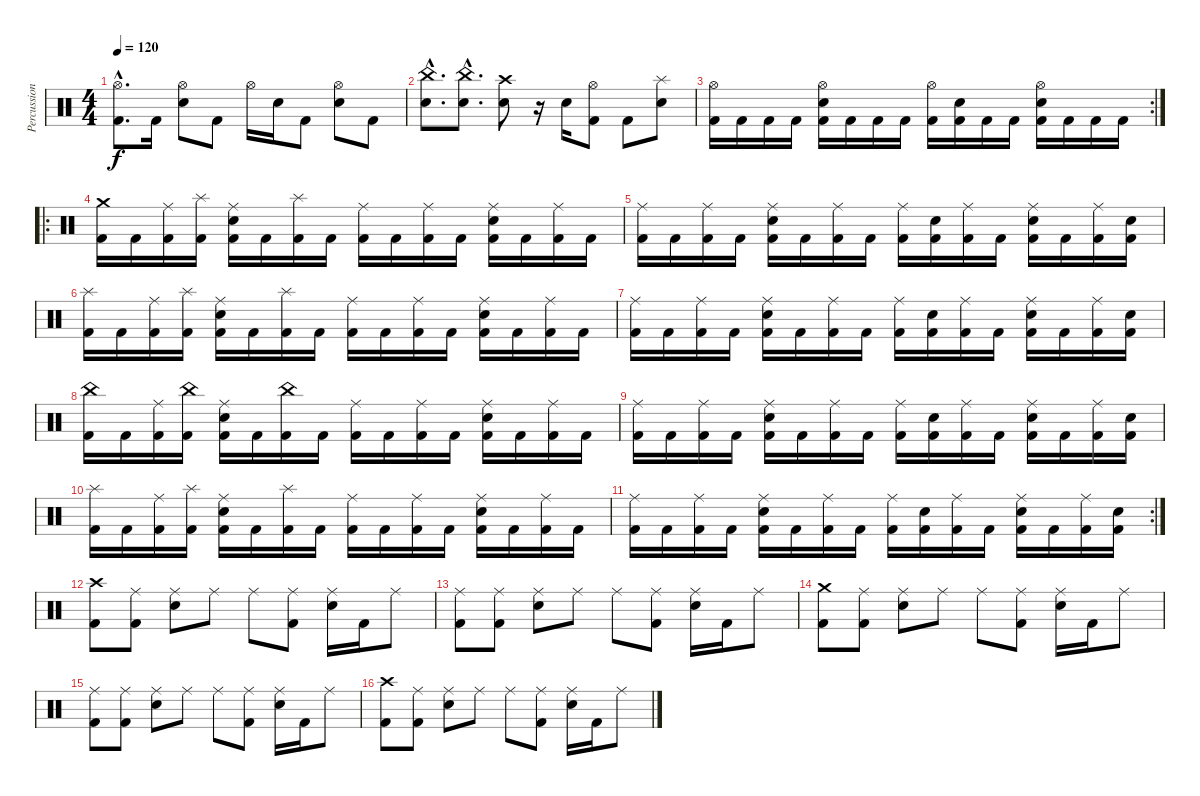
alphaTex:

\track ("Percussions" "Percussion") {instrument percussion}
\staff {score}
\articulation defaults
\ts (4 4)
\tempo 120
\clef neutral
\ks c
("Hi-Hat (open)"{hac} "Kick (hit) 2"{hac}).8{d dy f} "Kick (hit) 2".16 ("Hi-Hat (open)" "Electric Snare (hit)").8 "Kick (hit) 2".8 "Hi-Hat (open)".16 "Electric Snare (hit)".16 "Kick (hit) 2".8 ("Hi-Hat (open)" "Electric Snare (hit)").8 "Kick (hit) 2".8 |
("China (hit)"{hac} "Electric Snare (hit)"{hac}).8{d} ("China (hit)"{hac} "Electric Snare (hit)"{hac}).8{d} ("Crash high (hit)" "Electric Snare (hit)").8 r.16 "Electric Snare (hit)".16 ("Hi-Hat (open)" "Kick (hit) 2").8 "Kick (hit) 2".8 ("Splash (hit)" "Electric Snare (hit)").8 |
\rc 2
("Hi-Hat (open)" "Kick (hit) 2").16 "Kick (hit) 2".16 "Kick (hit) 2".16 "Kick (hit) 2".16 ("Hi-Hat (open)" "Electric Snare (hit)" "Kick (hit) 2").16 "Kick (hit) 2".16 "Kick (hit) 2".16 "Kick (hit) 2".16 ("Hi-Hat (open)" "Kick (hit) 2").16 ("Electric Snare (hit)" "Kick (hit) 2").16 "Kick (hit) 2".16 "Kick (hit) 2".16 ("Hi-Hat (open)" "Electric Snare (hit)" "Kick (hit) 2").16 "Kick (hit) 2".16 "Kick (hit) 2".16 "Kick (hit) 2".16 |
\ro
("Crash medium (hit)" "Kick (hit) 2").16 "Kick (hit) 2".16 ("Ride (middle)" "Kick (hit) 2").16 ("Splash (hit)" "Kick (hit) 2").16 ("Ride (middle)" "Electric Snare (hit)" "Kick (hit) 2").16 "Kick (hit) 2".16 ("Splash (hit)" "Kick (hit) 2").16 "Kick (hit) 2".16 ("Ride (middle)" "Kick (hit) 2").16 "Kick (hit) 2".16 ("Ride (middle)" "Kick (hit) 2").16 "Kick (hit) 2".16 ("Ride (middle)" "Electric Snare (hit)" "Kick (hit) 2").16 "Kick (hit) 2".16 ("Ride (middle)" "Kick (hit) 2").16 "Kick (hit) 2".16 |
("Ride (middle)" "Kick (hit) 2").16 "Kick (hit) 2".16 ("Ride (middle)" "Kick (hit) 2").16 "Kick (hit) 2".16 ("Ride (middle)" "Electric Snare (hit)" "Kick (hit) 2").16 "Kick (hit) 2".16 ("Ride (middle)" "Kick (hit) 2").16 "Kick (hit) 2".16 ("Ride (middle)" "Kick (hit) 2").16 ("Electric Snare (hit)" "Kick (hit) 2").16 ("Ride (middle)" "Kick (hit) 2").16 "Kick (hit) 2".16 ("Ride (middle)" "Electric Snare (hit)" "Kick (hit) 2").16 "Kick (hit) 2".16 ("Ride (middle)" "Kick (hit) 2").16 ("Electric Snare (hit)" "Kick (hit) 2").16 |
("Splash (hit)" "Kick (hit) 2").16 "Kick (hit) 2".16 ("Ride (middle)" "Kick (hit) 2").16 ("Splash (hit)" "Kick (hit) 2").16 ("Ride (middle)" "Electric Snare (hit)" "Kick (hit) 2").16 "Kick (hit) 2".16 ("Splash (hit)" "Kick (hit) 2").16 "Kick (hit) 2".16 ("Ride (middle)" "Kick (hit) 2").16 "Kick (hit) 2".16 ("Ride (middle)" "Kick (hit) 2").16 "Kick (hit) 2".16 ("Ride (middle)" "Electric Snare (hit)" "Kick (hit) 2").16 "Kick (hit) 2".16 ("Ride (middle)" "Kick (hit) 2").16 "Kick (hit) 2".16 |
("Ride (middle)" "Kick (hit) 2").16 "Kick (hit) 2".16 ("Ride (middle)" "Kick (hit) 2").16 "Kick (hit) 2".16 ("Ride (middle)" "Electric Snare (hit)" "Kick (hit) 2").16 "Kick (hit) 2".16 ("Ride (middle)" "Kick (hit) 2").16 "Kick (hit) 2".16 ("Ride (middle)" "Kick (hit) 2").16 ("Electric Snare (hit)" "Kick (hit) 2").16 ("Ride (middle)" "Kick (hit) 2").16 "Kick (hit) 2".16 ("Ride (middle)" "Electric Snare (hit)" "Kick (hit) 2").16 "Kick (hit) 2".16 ("Ride (middle)" "Kick (hit) 2").16 ("Electric Snare (hit)" "Kick (hit) 2").16 |
("China (hit)" "Kick (hit) 2").16 "Kick (hit) 2".16 ("Ride (middle)" "Kick (hit) 2").16 ("China (hit)" "Kick (hit) 2").16 ("Ride (middle)" "Electric Snare (hit)" "Kick (hit) 2").16 "Kick (hit) 2".16 ("China (hit)" "Kick (hit) 2").16 "Kick (hit) 2".16 ("Ride (middle)" "Kick (hit) 2").16 "Kick (hit) 2".16 ("Ride (middle)" "Kick (hit) 2").16 "Kick (hit) 2".16 ("Ride (middle)" "Electric Snare (hit)" "Kick (hit) 2").16 "Kick (hit) 2".16 ("Ride (middle)" "Kick (hit) 2").16 "Kick (hit) 2".16 |
("Ride (middle)" "Kick (hit) 2").16 "Kick (hit) 2".16 ("Ride (middle)" "Kick (hit) 2").16 "Kick (hit) 2".16 ("Ride (middle)" "Electric Snare (hit)" "Kick (hit) 2").16 "Kick (hit) 2".16 ("Ride (middle)" "Kick (hit) 2").16 "Kick (hit) 2".16 ("Ride (middle)" "Kick (hit) 2").16 ("Electric Snare (hit)" "Kick (hit) 2").16 ("Ride (middle)" "Kick (hit) 2").16 "Kick (hit) 2".16 ("Ride (middle)" "Electric Snare (hit)" "Kick (hit) 2").16 "Kick (hit) 2".16 ("Ride (middle)" "Kick (hit) 2").16 ("Electric Snare (hit)" "Kick (hit) 2").16 |
("Splash (hit)" "Kick (hit) 2").16 "Kick (hit) 2".16 ("Ride (middle)" "Kick (hit) 2").16 ("Splash (hit)" "Kick (hit) 2").16 ("Ride (middle)" "Electric Snare (hit)" "Kick (hit) 2").16 "Kick (hit) 2".16 ("Splash (hit)" "Kick (hit) 2").16 "Kick (hit) 2".16 ("Ride (middle)" "Kick (hit) 2").16 "Kick (hit) 2".16 ("Ride (middle)" "Kick (hit) 2").16 "Kick (hit) 2".16 ("Ride (middle)" "Electric Snare (hit)" "Kick (hit) 2").16 "Kick (hit) 2".16 ("Ride (middle)" "Kick (hit) 2").16 "Kick (hit) 2".16 |
\rc 2
("Ride (middle)" "Kick (hit) 2").16 "Kick (hit) 2".16 ("Ride (middle)" "Kick (hit) 2").16 "Kick (hit) 2".16 ("Ride (middle)" "Electric Snare (hit)" "Kick (hit) 2").16 "Kick (hit) 2".16 ("Ride (middle)" "Kick (hit) 2").16 "Kick (hit) 2".16 ("Ride (middle)" "Kick (hit) 2").16 ("Electric Snare (hit)" "Kick (hit) 2").16 ("Ride (middle)" "Kick (hit) 2").16 "Kick (hit) 2".16 ("Ride (middle)" "Electric Snare (hit)" "Kick (hit) 2").16 "Kick (hit) 2".16 ("Ride (middle)" "Kick (hit) 2").16 ("Electric Snare (hit)" "Kick (hit) 2").16 |
("Crash high (hit)" "Kick (hit) 2").8 ("Ride (middle)" "Kick (hit) 2").8 ("Ride (middle)" "Electric Snare (hit)").8 "Ride (middle)".8 "Ride (middle)".8 ("Ride (middle)" "Kick (hit) 2").8 ("Ride (middle)" "Electric Snare (hit)").16 "Kick (hit) 2".16 "Ride (middle)".8 |
("Ride (middle)" "Kick (hit) 2").8 ("Ride (middle)" "Kick (hit) 2").8 ("Ride (middle)" "Electric Snare (hit)").8 "Ride (middle)".8 "Ride (middle)".8 ("Ride (middle)" "Kick (hit) 2").8 ("Ride (middle)" "Electric Snare (hit)").16 "Kick (hit) 2".16 "Ride (middle)".8 |
("Crash medium (hit)" "Kick (hit) 2").8 ("Ride (middle)" "Kick (hit) 2").8 ("Ride (middle)" "Electric Snare (hit)").8 "Ride (middle)".8 "Ride (middle)".8 ("Ride (middle)" "Kick (hit) 2").8 ("Ride (middle)" "Electric Snare (hit)").16 "Kick (hit) 2".16 "Ride (middle)".8 |
("Ride (middle)" "Kick (hit) 2").8 ("Ride (middle)" "Kick (hit) 2").8 ("Ride (middle)" "Electric Snare (hit)").8 "Ride (middle)".8 "Ride (middle)".8 ("Ride (middle)" "Kick (hit) 2").8 ("Ride (middle)" "Electric Snare (hit)").16 "Kick (hit) 2".16 "Ride (middle)".8 |
("Crash high (hit)" "Kick (hit) 2").8 ("Ride (middle)" "Kick (hit) 2").8 ("Ride (middle)" "Electric Snare (hit)").8 "Ride (middle)".8 "Ride (middle)".8 ("Ride (middle)" "Kick (hit) 2").8 ("Ride (middle)" "Electric Snare (hit)").16 "Kick (hit) 2".16 "Ride (middle)".8
